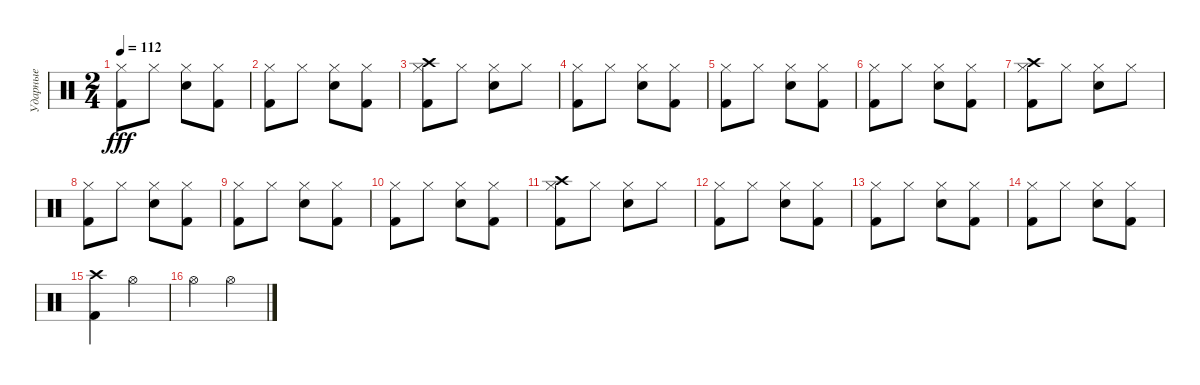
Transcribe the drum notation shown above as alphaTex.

\track ("Ударные" "Ударные") {instrument percussion}
\staff {score}
\articulation defaults
\ts (2 4)
\tempo 112
\clef neutral
\ks c
("Kick (hit) 2" "Hi-Hat (closed)").8{dy fff} "Hi-Hat (closed)".8 ("Electric Snare (hit)" "Hi-Hat (closed)").8 ("Hi-Hat (closed)" "Kick (hit) 2").8 |
("Kick (hit) 2" "Hi-Hat (closed)").8 "Hi-Hat (closed)".8 ("Electric Snare (hit)" "Hi-Hat (closed)").8 ("Hi-Hat (closed)" "Kick (hit) 2").8 |
("Kick (hit) 2" "Crash high (hit)" "Hi-Hat (closed)").8 "Hi-Hat (closed)".8 ("Electric Snare (hit)" "Hi-Hat (closed)").8 "Hi-Hat (closed)".8 |
("Kick (hit) 2" "Hi-Hat (closed)").8 "Hi-Hat (closed)".8 ("Electric Snare (hit)" "Hi-Hat (closed)").8 ("Hi-Hat (closed)" "Kick (hit) 2").8 |
("Kick (hit) 2" "Hi-Hat (closed)").8 "Hi-Hat (closed)".8 ("Electric Snare (hit)" "Hi-Hat (closed)").8 ("Hi-Hat (closed)" "Kick (hit) 2").8 |
("Kick (hit) 2" "Hi-Hat (closed)").8 "Hi-Hat (closed)".8 ("Electric Snare (hit)" "Hi-Hat (closed)").8 ("Kick (hit) 2" "Hi-Hat (closed)").8 |
("Kick (hit) 2" "Hi-Hat (closed)" "Crash high (hit)").8 "Hi-Hat (closed)".8 ("Electric Snare (hit)" "Hi-Hat (closed)").8 "Hi-Hat (closed)".8 |
("Kick (hit) 2" "Hi-Hat (closed)").8 "Hi-Hat (closed)".8 ("Electric Snare (hit)" "Hi-Hat (closed)").8 ("Kick (hit) 2" "Hi-Hat (closed)").8 |
("Kick (hit) 2" "Hi-Hat (closed)").8 "Hi-Hat (closed)".8 ("Electric Snare (hit)" "Hi-Hat (closed)").8 ("Hi-Hat (closed)" "Kick (hit) 2").8 |
("Kick (hit) 2" "Hi-Hat (closed)").8 "Hi-Hat (closed)".8 ("Electric Snare (hit)" "Hi-Hat (closed)").8 ("Kick (hit) 2" "Hi-Hat (closed)").8 |
("Kick (hit) 2" "Hi-Hat (closed)" "Crash high (hit)").8 "Hi-Hat (closed)".8 ("Electric Snare (hit)" "Hi-Hat (closed)").8 "Hi-Hat (closed)".8 |
("Kick (hit) 2" "Hi-Hat (closed)").8 "Hi-Hat (closed)".8 ("Electric Snare (hit)" "Hi-Hat (closed)").8 ("Kick (hit) 2" "Hi-Hat (closed)").8 |
("Kick (hit) 2" "Hi-Hat (closed)").8 "Hi-Hat (closed)".8 ("Electric Snare (hit)" "Hi-Hat (closed)").8 ("Kick (hit) 2" "Hi-Hat (closed)").8 |
("Kick (hit) 2" "Hi-Hat (closed)").8 "Hi-Hat (closed)".8 ("Electric Snare (hit)" "Hi-Hat (closed)").8 ("Hi-Hat (closed)" "Kick (hit) 2").8 |
("Kick (hit) 2" "Crash high (hit)").4 "Hi-Hat (open)".4 |
"Hi-Hat (open)".4 "Hi-Hat (open)".4
